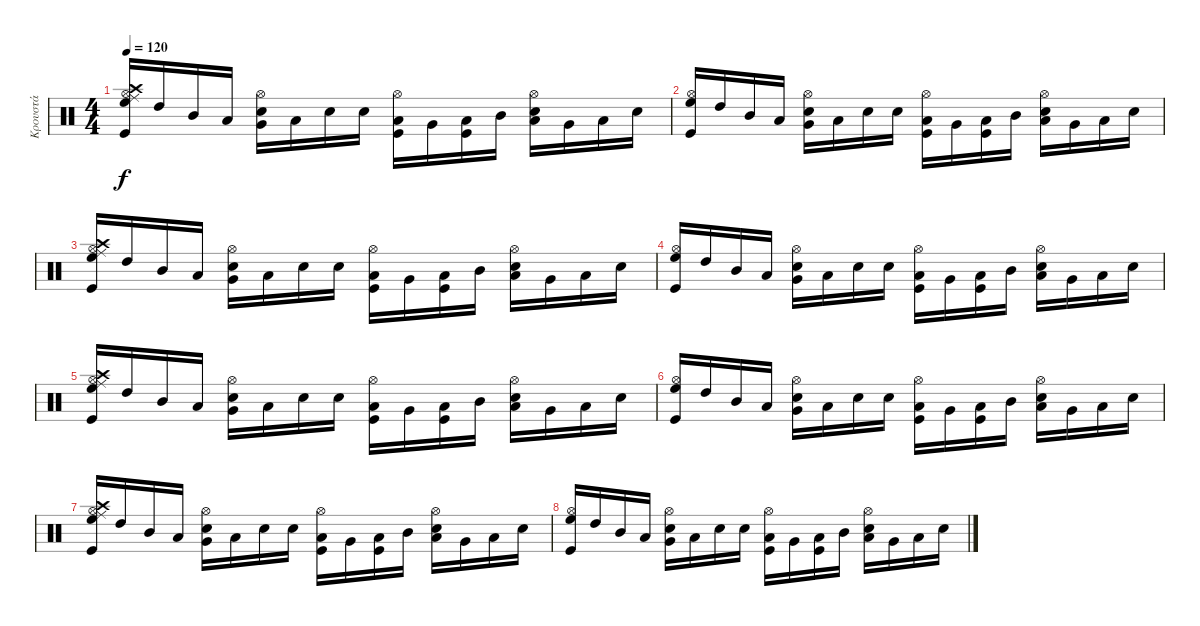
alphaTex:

\track ("Κρουστά" "Κρουστά") {instrument percussion}
\staff {score}
\articulation defaults
\ts (4 4)
\tempo 120
\clef neutral
\ks c
("High Floor Tom (hit)" "Ride (middle)" "Crash high (hit)" "Hi-Hat (open)" "Kick (hit)").16{dy f} "High Tom (hit)".16 "Mid Tom (hit)".16 "Low Tom (hit)".16 ("Very Low Tom (hit)" "Snare (hit) 2" "Hi-Hat (open)").16 "Low Floor Tom (hit)".16 "Snare (hit) 2".16 "Snare (hit) 2".16 ("Low Floor Tom (hit)" "Hi-Hat (open)" "Kick (hit)").16 "Very Low Tom (hit)".16 ("Low Tom (hit)" "Kick (hit)").16 "Mid Tom (hit)".16 ("Low Tom (hit)" "Snare (hit) 2" "Hi-Hat (open)").16 "Very Low Tom (hit)".16 "Low Floor Tom (hit)".16 "Snare (hit) 2".16 |
("High Floor Tom (hit)" "Hi-Hat (open)" "Kick (hit)").16 "High Tom (hit)".16 "Mid Tom (hit)".16 "Low Tom (hit)".16 ("Very Low Tom (hit)" "Snare (hit) 2" "Hi-Hat (open)").16 "Low Floor Tom (hit)".16 "Snare (hit) 2".16 "Snare (hit) 2".16 ("Low Floor Tom (hit)" "Hi-Hat (open)" "Kick (hit)").16 "Very Low Tom (hit)".16 ("Low Tom (hit)" "Kick (hit)").16 "Mid Tom (hit)".16 ("Low Tom (hit)" "Snare (hit) 2" "Hi-Hat (open)").16 "Very Low Tom (hit)".16 "Low Floor Tom (hit)".16 "Snare (hit) 2".16 |
("High Floor Tom (hit)" "Ride (middle)" "Crash high (hit)" "Hi-Hat (open)" "Kick (hit)").16 "High Tom (hit)".16 "Mid Tom (hit)".16 "Low Tom (hit)".16 ("Very Low Tom (hit)" "Snare (hit) 2" "Hi-Hat (open)").16 "Low Floor Tom (hit)".16 "Snare (hit) 2".16 "Snare (hit) 2".16 ("Low Floor Tom (hit)" "Hi-Hat (open)" "Kick (hit)").16 "Very Low Tom (hit)".16 ("Low Tom (hit)" "Kick (hit)").16 "Mid Tom (hit)".16 ("Low Tom (hit)" "Snare (hit) 2" "Hi-Hat (open)").16 "Very Low Tom (hit)".16 "Low Floor Tom (hit)".16 "Snare (hit) 2".16 |
("High Floor Tom (hit)" "Hi-Hat (open)" "Kick (hit)").16 "High Tom (hit)".16 "Mid Tom (hit)".16 "Low Tom (hit)".16 ("Very Low Tom (hit)" "Snare (hit) 2" "Hi-Hat (open)").16 "Low Floor Tom (hit)".16 "Snare (hit) 2".16 "Snare (hit) 2".16 ("Low Floor Tom (hit)" "Hi-Hat (open)" "Kick (hit)").16 "Very Low Tom (hit)".16 ("Low Tom (hit)" "Kick (hit)").16 "Mid Tom (hit)".16 ("Low Tom (hit)" "Snare (hit) 2" "Hi-Hat (open)").16 "Very Low Tom (hit)".16 "Low Floor Tom (hit)".16 "Snare (hit) 2".16 |
("High Floor Tom (hit)" "Ride (middle)" "Crash high (hit)" "Hi-Hat (open)" "Kick (hit)").16 "High Tom (hit)".16 "Mid Tom (hit)".16 "Low Tom (hit)".16 ("Very Low Tom (hit)" "Snare (hit) 2" "Hi-Hat (open)").16 "Low Floor Tom (hit)".16 "Snare (hit) 2".16 "Snare (hit) 2".16 ("Low Floor Tom (hit)" "Hi-Hat (open)" "Kick (hit)").16 "Very Low Tom (hit)".16 ("Low Tom (hit)" "Kick (hit)").16 "Mid Tom (hit)".16 ("Low Tom (hit)" "Snare (hit) 2" "Hi-Hat (open)").16 "Very Low Tom (hit)".16 "Low Floor Tom (hit)".16 "Snare (hit) 2".16 |
("High Floor Tom (hit)" "Hi-Hat (open)" "Kick (hit)").16 "High Tom (hit)".16 "Mid Tom (hit)".16 "Low Tom (hit)".16 ("Very Low Tom (hit)" "Snare (hit) 2" "Hi-Hat (open)").16 "Low Floor Tom (hit)".16 "Snare (hit) 2".16 "Snare (hit) 2".16 ("Low Floor Tom (hit)" "Hi-Hat (open)" "Kick (hit)").16 "Very Low Tom (hit)".16 ("Low Tom (hit)" "Kick (hit)").16 "Mid Tom (hit)".16 ("Low Tom (hit)" "Snare (hit) 2" "Hi-Hat (open)").16 "Very Low Tom (hit)".16 "Low Floor Tom (hit)".16 "Snare (hit) 2".16 |
("High Floor Tom (hit)" "Ride (middle)" "Crash high (hit)" "Hi-Hat (open)" "Kick (hit)").16 "High Tom (hit)".16 "Mid Tom (hit)".16 "Low Tom (hit)".16 ("Very Low Tom (hit)" "Snare (hit) 2" "Hi-Hat (open)").16 "Low Floor Tom (hit)".16 "Snare (hit) 2".16 "Snare (hit) 2".16 ("Low Floor Tom (hit)" "Hi-Hat (open)" "Kick (hit)").16 "Very Low Tom (hit)".16 ("Low Tom (hit)" "Kick (hit)").16 "Mid Tom (hit)".16 ("Low Tom (hit)" "Snare (hit) 2" "Hi-Hat (open)").16 "Very Low Tom (hit)".16 "Low Floor Tom (hit)".16 "Snare (hit) 2".16 |
("High Floor Tom (hit)" "Hi-Hat (open)" "Kick (hit)").16 "High Tom (hit)".16 "Mid Tom (hit)".16 "Low Tom (hit)".16 ("Very Low Tom (hit)" "Snare (hit) 2" "Hi-Hat (open)").16 "Low Floor Tom (hit)".16 "Snare (hit) 2".16 "Snare (hit) 2".16 ("Low Floor Tom (hit)" "Hi-Hat (open)" "Kick (hit)").16 "Very Low Tom (hit)".16 ("Low Tom (hit)" "Kick (hit)").16 "Mid Tom (hit)".16 ("Low Tom (hit)" "Snare (hit) 2" "Hi-Hat (open)").16 "Very Low Tom (hit)".16 "Low Floor Tom (hit)".16 "Snare (hit) 2".16
